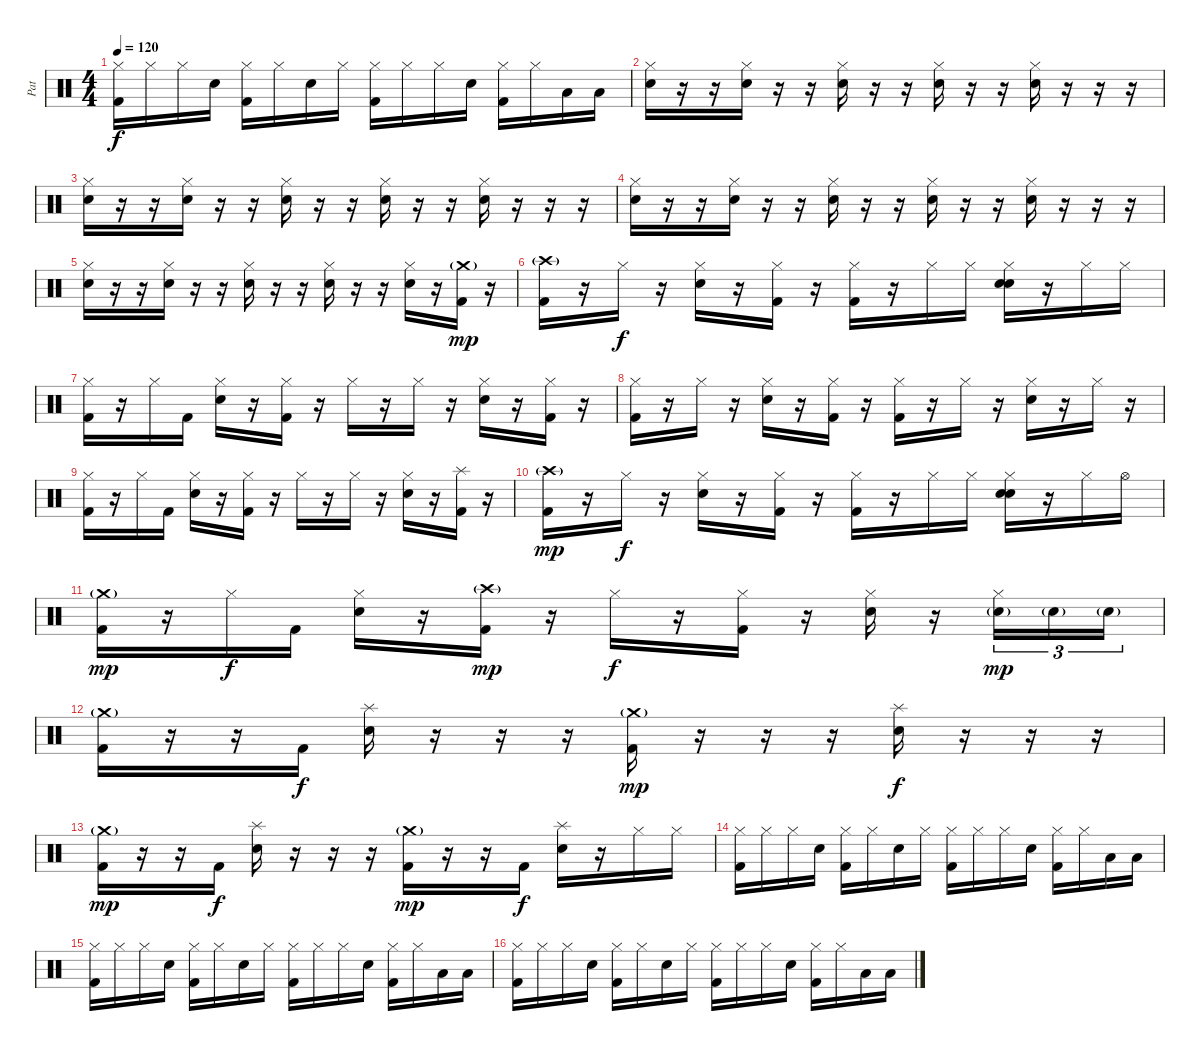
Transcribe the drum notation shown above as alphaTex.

\track ("Pat" "Pat") {instrument percussion}
\staff {score}
\articulation defaults
\ts (4 4)
\tempo 120
\clef neutral
\ks c
("Hi-Hat (closed)" "Kick (hit) 2").16{dy f} "Hi-Hat (closed)".16 "Hi-Hat (closed)".16 "Electric Snare (hit)".16 ("Hi-Hat (closed)" "Kick (hit) 2").16 "Hi-Hat (closed)".16 "Electric Snare (hit)".16 "Hi-Hat (closed)".16 ("Hi-Hat (closed)" "Kick (hit) 2").16 "Hi-Hat (closed)".16 "Hi-Hat (closed)".16 "Electric Snare (hit)".16 ("Hi-Hat (closed)" "Kick (hit) 2").16 "Hi-Hat (closed)".16 "Low Tom (hit)".16 "Low Tom (hit)".16 |
("Hi-Hat (closed)" "Electric Snare (hit)").16 r.16 r.16 ("Hi-Hat (closed)" "Electric Snare (hit)").16 r.16 r.16 ("Hi-Hat (closed)" "Electric Snare (hit)").16 r.16 r.16 ("Hi-Hat (closed)" "Electric Snare (hit)").16 r.16 r.16 ("Hi-Hat (closed)" "Electric Snare (hit)").16 r.16 r.16 r.16 |
("Hi-Hat (closed)" "Electric Snare (hit)").16 r.16 r.16 ("Hi-Hat (closed)" "Electric Snare (hit)").16 r.16 r.16 ("Hi-Hat (closed)" "Electric Snare (hit)").16 r.16 r.16 ("Hi-Hat (closed)" "Electric Snare (hit)").16 r.16 r.16 ("Hi-Hat (closed)" "Electric Snare (hit)").16 r.16 r.16 r.16 |
("Hi-Hat (closed)" "Electric Snare (hit)").16 r.16 r.16 ("Hi-Hat (closed)" "Electric Snare (hit)").16 r.16 r.16 ("Hi-Hat (closed)" "Electric Snare (hit)").16 r.16 r.16 ("Hi-Hat (closed)" "Electric Snare (hit)").16 r.16 r.16 ("Hi-Hat (closed)" "Electric Snare (hit)").16 r.16 r.16 r.16 |
("Hi-Hat (closed)" "Electric Snare (hit)").16 r.16 r.16 ("Hi-Hat (closed)" "Electric Snare (hit)").16 r.16 r.16 ("Hi-Hat (closed)" "Electric Snare (hit)").16 r.16 r.16 ("Hi-Hat (closed)" "Electric Snare (hit)").16 r.16 r.16 ("Hi-Hat (closed)" "Electric Snare (hit)").16 r.16 ("Crash medium (hit)"{g} "Kick (hit) 2").16{dy mp} r.16 |
("Crash high (hit)"{g} "Kick (hit) 2").16 r.16 "Hi-Hat (closed)".16{dy f} r.16 ("Hi-Hat (closed)" "Electric Snare (hit)").16 r.16 ("Hi-Hat (closed)" "Kick (hit) 2").16 r.16 ("Hi-Hat (closed)" "Kick (hit) 2").16 r.16 "Hi-Hat (closed)".16 "Hi-Hat (closed)".16 ("Hi-Hat (closed)" "Electric Snare (hit)" "Hand Clap (hit)").16 r.16 "Hi-Hat (closed)".16 "Hi-Hat (closed)".16 |
("Hi-Hat (closed)" "Kick (hit) 2").16 r.16 "Hi-Hat (closed)".16 "Kick (hit) 2".16 ("Hi-Hat (closed)" "Electric Snare (hit)").16 r.16 ("Hi-Hat (closed)" "Kick (hit) 2").16 r.16 "Hi-Hat (closed)".16 r.16 "Hi-Hat (closed)".16 r.16 ("Hi-Hat (closed)" "Electric Snare (hit)").16 r.16 ("Hi-Hat (closed)" "Kick (hit) 2").16 r.16 |
("Hi-Hat (closed)" "Kick (hit) 2").16 r.16 "Hi-Hat (closed)".16 r.16 ("Hi-Hat (closed)" "Electric Snare (hit)").16 r.16 ("Hi-Hat (closed)" "Kick (hit) 2").16 r.16 ("Hi-Hat (closed)" "Kick (hit) 2").16 r.16 "Hi-Hat (closed)".16 r.16 ("Hi-Hat (closed)" "Electric Snare (hit)").16 r.16 "Hi-Hat (closed)".16 r.16 |
("Hi-Hat (closed)" "Kick (hit) 2").16 r.16 "Hi-Hat (closed)".16 "Kick (hit) 2".16 ("Hi-Hat (closed)" "Electric Snare (hit)").16 r.16 ("Hi-Hat (closed)" "Kick (hit) 2").16 r.16 "Hi-Hat (closed)".16 r.16 "Hi-Hat (closed)".16 r.16 ("Hi-Hat (closed)" "Electric Snare (hit)").16 r.16 ("Splash (hit)" "Kick (hit) 2").16 r.16 |
("Crash high (hit)"{g} "Kick (hit) 2").16{dy mp} r.16 "Hi-Hat (closed)".16{dy f} r.16 ("Hi-Hat (closed)" "Electric Snare (hit)").16 r.16 ("Hi-Hat (closed)" "Kick (hit) 2").16 r.16 ("Hi-Hat (closed)" "Kick (hit) 2").16 r.16 "Hi-Hat (closed)".16 "Hi-Hat (closed)".16 ("Hi-Hat (closed)" "Electric Snare (hit)" "Hand Clap (hit)").16 r.16 "Hi-Hat (closed)".16 "Hi-Hat (open)".16 |
("Crash medium (hit)"{g} "Kick (hit) 2").16{dy mp} r.16 "Hi-Hat (closed)".16{dy f} "Kick (hit) 2".16 ("Hi-Hat (closed)" "Electric Snare (hit)").16 r.16 ("Crash high (hit)"{g} "Kick (hit) 2").16{dy mp} r.16 "Hi-Hat (closed)".16{dy f} r.16 ("Hi-Hat (closed)" "Kick (hit) 2").16 r.16 ("Hi-Hat (closed)" "Electric Snare (hit)").16 r.16 ("Hi-Hat (closed)" "Electric Snare (hit)"{g}).16{tu (3 2) dy mp} "Electric Snare (hit)"{g}.16{tu (3 2)} "Electric Snare (hit)"{g}.16{tu (3 2)} |
("Crash medium (hit)"{g} "Kick (hit) 2").16 r.16 r.16 "Kick (hit) 2".16{dy f} ("Splash (hit)" "Electric Snare (hit)").16 r.16 r.16 r.16 ("Crash medium (hit)"{g} "Kick (hit) 2").16{dy mp} r.16 r.16 r.16 ("Splash (hit)" "Electric Snare (hit)").16{dy f} r.16 r.16 r.16 |
("Crash medium (hit)"{g} "Kick (hit) 2").16{dy mp} r.16 r.16 "Kick (hit) 2".16{dy f} ("Splash (hit)" "Electric Snare (hit)").16 r.16 r.16 r.16 ("Crash medium (hit)"{g} "Kick (hit) 2").16{dy mp} r.16 r.16 "Kick (hit) 2".16{dy f} ("Splash (hit)" "Electric Snare (hit)").16 r.16 "Hi-Hat (closed)".16 "Hi-Hat (closed)".16 |
("Hi-Hat (closed)" "Kick (hit) 2").16 "Hi-Hat (closed)".16 "Hi-Hat (closed)".16 "Electric Snare (hit)".16 ("Hi-Hat (closed)" "Kick (hit) 2").16 "Hi-Hat (closed)".16 "Electric Snare (hit)".16 "Hi-Hat (closed)".16 ("Hi-Hat (closed)" "Kick (hit) 2").16 "Hi-Hat (closed)".16 "Hi-Hat (closed)".16 "Electric Snare (hit)".16 ("Hi-Hat (closed)" "Kick (hit) 2").16 "Hi-Hat (closed)".16 "Low Tom (hit)".16 "Low Tom (hit)".16 |
("Hi-Hat (closed)" "Kick (hit) 2").16 "Hi-Hat (closed)".16 "Hi-Hat (closed)".16 "Electric Snare (hit)".16 ("Hi-Hat (closed)" "Kick (hit) 2").16 "Hi-Hat (closed)".16 "Electric Snare (hit)".16 "Hi-Hat (closed)".16 ("Hi-Hat (closed)" "Kick (hit) 2").16 "Hi-Hat (closed)".16 "Hi-Hat (closed)".16 "Electric Snare (hit)".16 ("Hi-Hat (closed)" "Kick (hit) 2").16 "Hi-Hat (closed)".16 "Low Tom (hit)".16 "Low Tom (hit)".16 |
("Hi-Hat (closed)" "Kick (hit) 2").16 "Hi-Hat (closed)".16 "Hi-Hat (closed)".16 "Electric Snare (hit)".16 ("Hi-Hat (closed)" "Kick (hit) 2").16 "Hi-Hat (closed)".16 "Electric Snare (hit)".16 "Hi-Hat (closed)".16 ("Hi-Hat (closed)" "Kick (hit) 2").16 "Hi-Hat (closed)".16 "Hi-Hat (closed)".16 "Electric Snare (hit)".16 ("Hi-Hat (closed)" "Kick (hit) 2").16 "Hi-Hat (closed)".16 "Low Tom (hit)".16 "Low Tom (hit)".16
